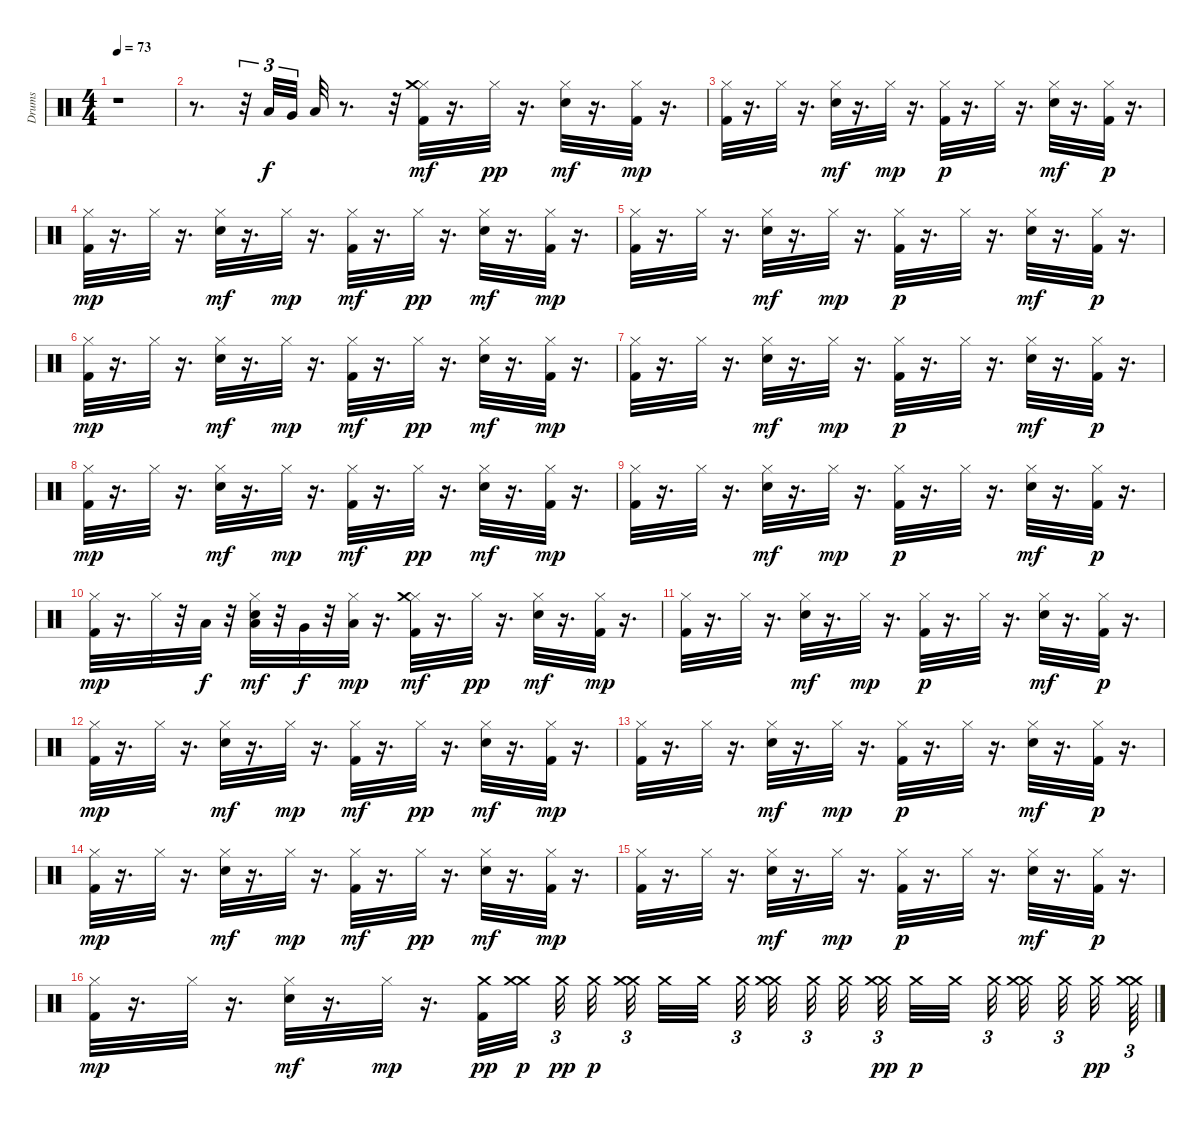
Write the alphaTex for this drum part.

\track ("Drums" "Drums") {instrument percussion}
\staff {score}
\articulation defaults
\ts (4 4)
\tempo 73
\clef neutral
\ks c
r.1{dy mp} |
r.8{d} r.32{tu (3 2)} "Low Tom (hit)".32{tu (3 2) dy f} "Very Low Tom (hit)".32{tu (3 2)} "Low Floor Tom (hit)".32 r.8{d} r.32 ("Kick (hit) 2" "Hi-Hat (closed)" "Crash medium (hit)").32{dy mf} r.16{d} "Hi-Hat (closed)".32{dy pp} r.16{d} ("Snare (hit) 2" "Hi-Hat (closed)").32{dy mf} r.16{d} ("Kick (hit) 2" "Hi-Hat (closed)").32{dy mp} r.16{d} |
("Kick (hit) 2" "Hi-Hat (closed)").32 r.16{d} "Hi-Hat (closed)".32 r.16{d} ("Snare (hit) 2" "Hi-Hat (closed)").32{dy mf} r.16{d} "Hi-Hat (closed)".32{dy mp} r.16{d} ("Kick (hit) 2" "Hi-Hat (closed)").32{dy p} r.16{d} "Hi-Hat (closed)".32 r.16{d} ("Snare (hit) 2" "Hi-Hat (closed)").32{dy mf} r.16{d} ("Kick (hit) 2" "Hi-Hat (closed)").32{dy p} r.16{d} |
("Kick (hit) 2" "Hi-Hat (closed)").32{dy mp} r.16{d} "Hi-Hat (closed)".32 r.16{d} ("Snare (hit) 2" "Hi-Hat (closed)").32{dy mf} r.16{d} "Hi-Hat (closed)".32{dy mp} r.16{d} ("Kick (hit) 2" "Hi-Hat (closed)").32{dy mf} r.16{d} "Hi-Hat (closed)".32{dy pp} r.16{d} ("Snare (hit) 2" "Hi-Hat (closed)").32{dy mf} r.16{d} ("Kick (hit) 2" "Hi-Hat (closed)").32{dy mp} r.16{d} |
("Kick (hit) 2" "Hi-Hat (closed)").32 r.16{d} "Hi-Hat (closed)".32 r.16{d} ("Snare (hit) 2" "Hi-Hat (closed)").32{dy mf} r.16{d} "Hi-Hat (closed)".32{dy mp} r.16{d} ("Kick (hit) 2" "Hi-Hat (closed)").32{dy p} r.16{d} "Hi-Hat (closed)".32 r.16{d} ("Snare (hit) 2" "Hi-Hat (closed)").32{dy mf} r.16{d} ("Kick (hit) 2" "Hi-Hat (closed)").32{dy p} r.16{d} |
("Kick (hit) 2" "Hi-Hat (closed)").32{dy mp} r.16{d} "Hi-Hat (closed)".32 r.16{d} ("Snare (hit) 2" "Hi-Hat (closed)").32{dy mf} r.16{d} "Hi-Hat (closed)".32{dy mp} r.16{d} ("Kick (hit) 2" "Hi-Hat (closed)").32{dy mf} r.16{d} "Hi-Hat (closed)".32{dy pp} r.16{d} ("Snare (hit) 2" "Hi-Hat (closed)").32{dy mf} r.16{d} ("Kick (hit) 2" "Hi-Hat (closed)").32{dy mp} r.16{d} |
("Kick (hit) 2" "Hi-Hat (closed)").32 r.16{d} "Hi-Hat (closed)".32 r.16{d} ("Snare (hit) 2" "Hi-Hat (closed)").32{dy mf} r.16{d} "Hi-Hat (closed)".32{dy mp} r.16{d} ("Kick (hit) 2" "Hi-Hat (closed)").32{dy p} r.16{d} "Hi-Hat (closed)".32 r.16{d} ("Snare (hit) 2" "Hi-Hat (closed)").32{dy mf} r.16{d} ("Kick (hit) 2" "Hi-Hat (closed)").32{dy p} r.16{d} |
("Kick (hit) 2" "Hi-Hat (closed)").32{dy mp} r.16{d} "Hi-Hat (closed)".32 r.16{d} ("Snare (hit) 2" "Hi-Hat (closed)").32{dy mf} r.16{d} "Hi-Hat (closed)".32{dy mp} r.16{d} ("Kick (hit) 2" "Hi-Hat (closed)").32{dy mf} r.16{d} "Hi-Hat (closed)".32{dy pp} r.16{d} ("Snare (hit) 2" "Hi-Hat (closed)").32{dy mf} r.16{d} ("Kick (hit) 2" "Hi-Hat (closed)").32{dy mp} r.16{d} |
("Kick (hit) 2" "Hi-Hat (closed)").32 r.16{d} "Hi-Hat (closed)".32 r.16{d} ("Snare (hit) 2" "Hi-Hat (closed)").32{dy mf} r.16{d} "Hi-Hat (closed)".32{dy mp} r.16{d} ("Kick (hit) 2" "Hi-Hat (closed)").32{dy p} r.16{d} "Hi-Hat (closed)".32 r.16{d} ("Snare (hit) 2" "Hi-Hat (closed)").32{dy mf} r.16{d} ("Kick (hit) 2" "Hi-Hat (closed)").32{dy p} r.16{d} |
("Kick (hit) 2" "Hi-Hat (closed)").32{dy mp} r.16{d} "Hi-Hat (closed)".32 r.32 "Low Floor Tom (hit)".32{dy f} r.32 ("Snare (hit) 2" "Hi-Hat (closed)" "Low Tom (hit)").32{dy mf} r.32 "Very Low Tom (hit)".32{dy f} r.32 ("Low Floor Tom (hit)" "Hi-Hat (closed)").32{dy mp} r.16{d} ("Kick (hit) 2" "Hi-Hat (closed)" "Crash medium (hit)").32{dy mf} r.16{d} "Hi-Hat (closed)".32{dy pp} r.16{d} ("Snare (hit) 2" "Hi-Hat (closed)").32{dy mf} r.16{d} ("Kick (hit) 2" "Hi-Hat (closed)").32{dy mp} r.16{d} |
("Kick (hit) 2" "Hi-Hat (closed)").32 r.16{d} "Hi-Hat (closed)".32 r.16{d} ("Snare (hit) 2" "Hi-Hat (closed)").32{dy mf} r.16{d} "Hi-Hat (closed)".32{dy mp} r.16{d} ("Kick (hit) 2" "Hi-Hat (closed)").32{dy p} r.16{d} "Hi-Hat (closed)".32 r.16{d} ("Snare (hit) 2" "Hi-Hat (closed)").32{dy mf} r.16{d} ("Kick (hit) 2" "Hi-Hat (closed)").32{dy p} r.16{d} |
("Kick (hit) 2" "Hi-Hat (closed)").32{dy mp} r.16{d} "Hi-Hat (closed)".32 r.16{d} ("Snare (hit) 2" "Hi-Hat (closed)").32{dy mf} r.16{d} "Hi-Hat (closed)".32{dy mp} r.16{d} ("Kick (hit) 2" "Hi-Hat (closed)").32{dy mf} r.16{d} "Hi-Hat (closed)".32{dy pp} r.16{d} ("Snare (hit) 2" "Hi-Hat (closed)").32{dy mf} r.16{d} ("Kick (hit) 2" "Hi-Hat (closed)").32{dy mp} r.16{d} |
("Kick (hit) 2" "Hi-Hat (closed)").32 r.16{d} "Hi-Hat (closed)".32 r.16{d} ("Snare (hit) 2" "Hi-Hat (closed)").32{dy mf} r.16{d} "Hi-Hat (closed)".32{dy mp} r.16{d} ("Kick (hit) 2" "Hi-Hat (closed)").32{dy p} r.16{d} "Hi-Hat (closed)".32 r.16{d} ("Snare (hit) 2" "Hi-Hat (closed)").32{dy mf} r.16{d} ("Kick (hit) 2" "Hi-Hat (closed)").32{dy p} r.16{d} |
("Kick (hit) 2" "Hi-Hat (closed)").32{dy mp} r.16{d} "Hi-Hat (closed)".32 r.16{d} ("Snare (hit) 2" "Hi-Hat (closed)").32{dy mf} r.16{d} "Hi-Hat (closed)".32{dy mp} r.16{d} ("Kick (hit) 2" "Hi-Hat (closed)").32{dy mf} r.16{d} "Hi-Hat (closed)".32{dy pp} r.16{d} ("Snare (hit) 2" "Hi-Hat (closed)").32{dy mf} r.16{d} ("Kick (hit) 2" "Hi-Hat (closed)").32{dy mp} r.16{d} |
("Kick (hit) 2" "Hi-Hat (closed)").32 r.16{d} "Hi-Hat (closed)".32 r.16{d} ("Snare (hit) 2" "Hi-Hat (closed)").32{dy mf} r.16{d} "Hi-Hat (closed)".32{dy mp} r.16{d} ("Kick (hit) 2" "Hi-Hat (closed)").32{dy p} r.16{d} "Hi-Hat (closed)".32 r.16{d} ("Snare (hit) 2" "Hi-Hat (closed)").32{dy mf} r.16{d} ("Kick (hit) 2" "Hi-Hat (closed)").32{dy p} r.16{d} |
("Kick (hit) 2" "Hi-Hat (closed)").32{dy mp} r.16{d} "Hi-Hat (closed)".32 r.16{d} ("Snare (hit) 2" "Hi-Hat (closed)").32{dy mf} r.16{d} "Hi-Hat (closed)".32{dy mp} r.16{d} ("Crash medium (hit)" "Kick (hit) 2").32{dy pp} ("Crash medium (hit)" "Crash medium (hit)").32{dy p beam splitsecondary} "Crash medium (hit)".32{tu (3 2) dy pp beam splitsecondary} "Crash medium (hit)".32{dy p beam splitsecondary} ("Crash medium (hit)" "Crash medium (hit)").32{tu (3 2) beam splitsecondary} "Crash medium (hit)".32 "Crash medium (hit)".32{beam splitsecondary} "Crash medium (hit)".32{tu (3 2)} ("Crash medium (hit)" "Crash medium (hit)").32 "Crash medium (hit)".32{tu (3 2) beam splitsecondary} "Crash medium (hit)".32{beam splitsecondary} ("Crash medium (hit)" "Crash medium (hit)").32{tu (3 2) dy pp beam splitsecondary} "Crash medium (hit)".32{dy p} "Crash medium (hit)".32{beam splitsecondary} "Crash medium (hit)".32{tu (3 2) beam splitsecondary} ("Crash medium (hit)" "Crash medium (hit)").32{beam splitsecondary} "Crash medium (hit)".32{tu (3 2) beam splitsecondary} "Crash medium (hit)".32{dy pp} ("Crash medium (hit)" "Crash medium (hit)").64{tu (3 2)}
